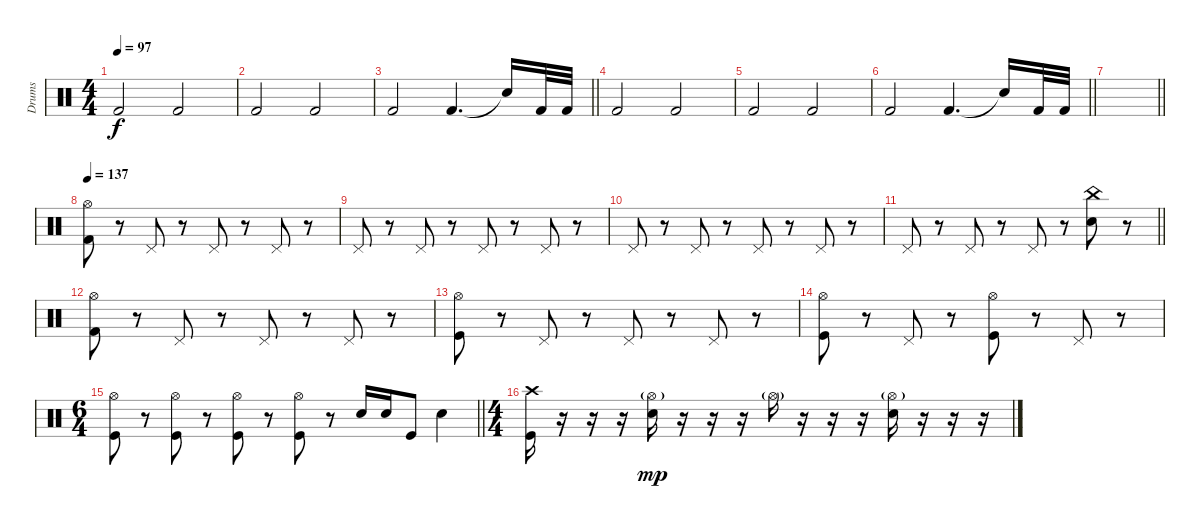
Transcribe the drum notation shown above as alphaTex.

\track ("Drums" "Drums") {instrument percussion}
\staff
\articulation defaults
\ts (4 4)
\tempo 97
\clef neutral
\ks c "Kick (hit) 2".2{dy f} "Kick (hit) 2".2
|
"Kick (hit) 2".2 "Kick (hit) 2".2 |
\barLineRight lightlight "Kick (hit) 2".2 "Kick (hit) 2".4{d} "Snare (hit)"{t}.16 "Kick (hit) 2".32 "Kick (hit) 2".32
|
"Kick (hit) 2".2 "Kick (hit) 2".2 |
"Kick (hit) 2".2 "Kick (hit) 2".2 |
\barLineRight lightlight "Kick (hit) 2".2 "Kick (hit) 2".4{d} "Snare (hit)"{t}.16 "Kick (hit) 2".32 "Kick (hit) 2".32
|
\barLineRight lightlight
|
\tempo 137
("Hi-Hat (open)" "Kick (hit) 2").8 r.8 "Pedal Hi-Hat (hit)".8 r.8 "Pedal Hi-Hat (hit)".8 r.8 "Pedal Hi-Hat (hit)".8 r.8 |
"Pedal Hi-Hat (hit)".8 r.8 "Pedal Hi-Hat (hit)".8 r.8 "Pedal Hi-Hat (hit)".8 r.8 "Pedal Hi-Hat (hit)".8 r.8 |
"Pedal Hi-Hat (hit)".8 r.8 "Pedal Hi-Hat (hit)".8 r.8 "Pedal Hi-Hat (hit)".8 r.8 "Pedal Hi-Hat (hit)".8 r.8 |
\barLineRight lightlight "Pedal Hi-Hat (hit)".8
r.8 "Pedal Hi-Hat (hit)".8 r.8 "Pedal Hi-Hat (hit)".8 r.8 ("China (hit)" "Electric Snare (hit)").8 r.8 |
("Hi-Hat (open)" "Kick (hit) 2").8 r.8 "Pedal Hi-Hat (hit)".8 r.8 "Pedal Hi-Hat (hit)".8 r.8 "Pedal Hi-Hat (hit)".8 r.8 |
("Hi-Hat (open)" "Kick (hit)").8 r.8 "Pedal Hi-Hat (hit)".8 r.8 "Pedal Hi-Hat (hit)".8 r.8 "Pedal Hi-Hat (hit)".8 r.8 |
("Hi-Hat (open)" "Kick (hit)").8 r.8 "Pedal Hi-Hat (hit)".8 r.8 ("Hi-Hat (open)" "Kick (hit)").8 r.8 "Pedal Hi-Hat (hit)".8 r.8 |
\ts (6 4)
\barLineRight lightlight
("Hi-Hat (open)" "Kick (hit)").8 r.8 ("Hi-Hat (open)" "Kick (hit)").8 r.8 ("Hi-Hat (open)" "Kick (hit)").8 r.8 ("Hi-Hat (open)" "Kick (hit)").8 r.8 "Electric Snare (hit)".16 "Electric Snare (hit)".16 "Kick (hit)".8 "Electric Snare (hit)".4 |
\ts (4 4)
("Crash high (hit)" "Kick (hit)").16 r.16 r.16 r.16 ("Hi-Hat (open)"{g} "Electric Snare (hit)").16{dy mp} r.16 r.16 r.16 "Hi-Hat (open)"{g}.16 r.16 r.16 r.16 ("Hi-Hat (open)"{g} "Electric Snare (hit)").16 r.16 r.16 r.16
